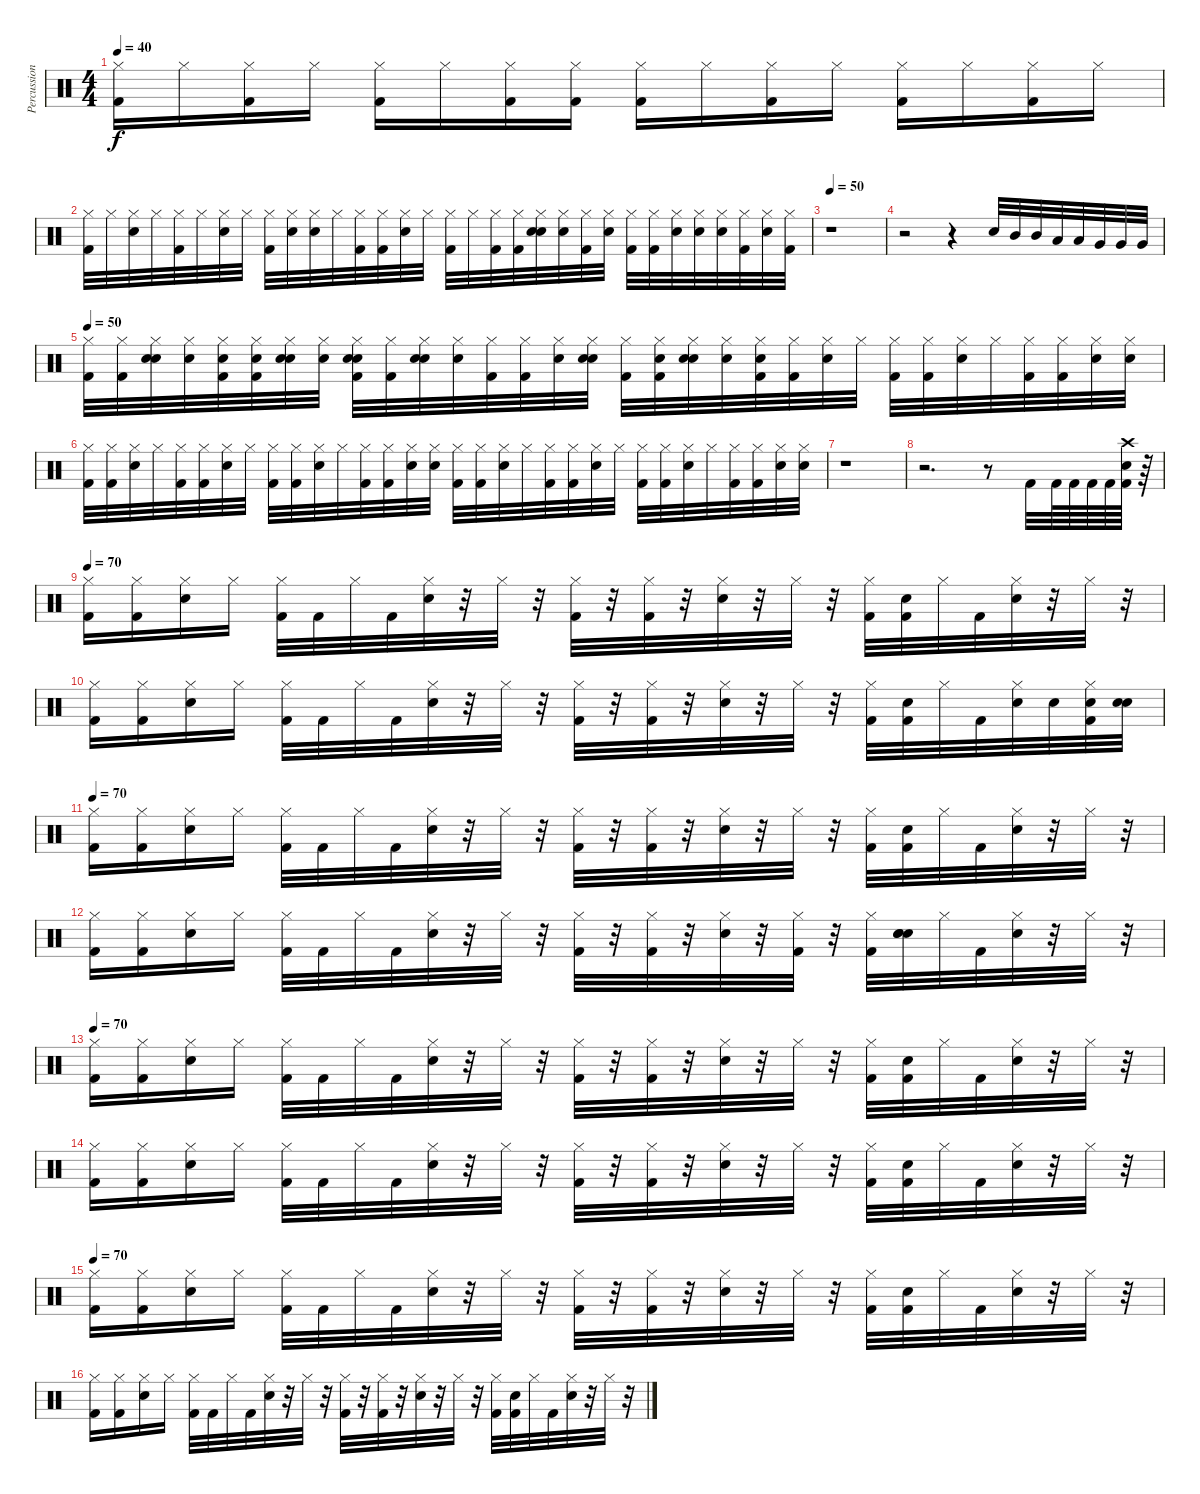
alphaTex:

\track ("Percussion" "Percussion") {instrument percussion}
\staff {score}
\articulation defaults
\ts (4 4)
\tempo 40
\clef neutral
\ks c
("Hi-Hat (closed)" "Kick (hit) 2").16{dy f} "Hi-Hat (closed)".16 ("Hi-Hat (closed)" "Kick (hit) 2").16 "Hi-Hat (closed)".16 ("Hi-Hat (closed)" "Kick (hit) 2").16 "Hi-Hat (closed)".16 ("Hi-Hat (closed)" "Kick (hit) 2").16 ("Hi-Hat (closed)" "Kick (hit) 2").16 ("Hi-Hat (closed)" "Kick (hit) 2").16 "Hi-Hat (closed)".16 ("Hi-Hat (closed)" "Kick (hit) 2").16 "Hi-Hat (closed)".16 ("Hi-Hat (closed)" "Kick (hit) 2").16 "Hi-Hat (closed)".16 ("Hi-Hat (closed)" "Kick (hit) 2").16 "Hi-Hat (closed)".16 |
("Hi-Hat (closed)" "Kick (hit) 2").32 "Hi-Hat (closed)".32 ("Hi-Hat (closed)" "Snare (hit)").32 "Hi-Hat (closed)".32 ("Hi-Hat (closed)" "Kick (hit) 2").32 "Hi-Hat (closed)".32 ("Hi-Hat (closed)" "Snare (hit)").32 "Hi-Hat (closed)".32 ("Hi-Hat (closed)" "Kick (hit) 2").32 ("Hi-Hat (closed)" "Snare (hit)").32 ("Hi-Hat (closed)" "Snare (hit)").32 "Hi-Hat (closed)".32 ("Hi-Hat (closed)" "Kick (hit) 2").32 ("Hi-Hat (closed)" "Kick (hit) 2").32 ("Hi-Hat (closed)" "Snare (hit)").32 "Hi-Hat (closed)".32 ("Hi-Hat (closed)" "Kick (hit) 2").32 "Hi-Hat (closed)".32 ("Hi-Hat (closed)" "Kick (hit) 2").32 ("Hi-Hat (closed)" "Kick (hit) 2").32 ("Hi-Hat (closed)" "Snare (hit)" "Snare (hit) 2").32 ("Hi-Hat (closed)" "Snare (hit) 2").32 ("Hi-Hat (closed)" "Kick (hit) 2").32 ("Hi-Hat (closed)" "Snare (hit) 2").32 ("Hi-Hat (closed)" "Kick (hit) 2").32 ("Hi-Hat (closed)" "Kick (hit) 2").32 ("Hi-Hat (closed)" "Snare (hit) 2").32 ("Hi-Hat (closed)" "Snare (hit)").32 ("Hi-Hat (closed)" "Snare (hit) 2").32 ("Hi-Hat (closed)" "Kick (hit) 2").32 ("Hi-Hat (closed)" "Snare (hit) 2").32 ("Hi-Hat (closed)" "Kick (hit) 2").32 |
\tempo 50
r.1 |
r.2 r.4 "Snare (hit) 2".32 "Mid Tom (hit)".32 "Mid Tom (hit)".32 "Low Tom (hit)".32 "Low Tom (hit)".32 "Very Low Tom (hit)".32 "Very Low Tom (hit)".32 "Very Low Tom (hit)".32 |
\tempo 50
("Hi-Hat (closed)" "Kick (hit) 2").32 ("Hi-Hat (closed)" "Kick (hit) 2").32 ("Hi-Hat (closed)" "Snare (hit) 2" "Snare (hit)").32 ("Hi-Hat (closed)" "Snare (hit)").32 ("Hi-Hat (closed)" "Snare (hit)" "Kick (hit) 2").32 ("Hi-Hat (closed)" "Snare (hit)" "Kick (hit) 2").32 ("Hi-Hat (closed)" "Snare (hit) 2" "Snare (hit)").32 ("Hi-Hat (closed)" "Snare (hit)").32 ("Hi-Hat (closed)" "Snare (hit)" "Snare (hit)" "Kick (hit) 2").32 ("Hi-Hat (closed)" "Kick (hit) 2").32 ("Hi-Hat (closed)" "Snare (hit) 2" "Snare (hit)").32 ("Hi-Hat (closed)" "Snare (hit)").32 ("Hi-Hat (closed)" "Kick (hit) 2").32 ("Hi-Hat (closed)" "Kick (hit) 2").32 ("Hi-Hat (closed)" "Snare (hit) 2").32 ("Hi-Hat (closed)" "Snare (hit) 2" "Snare (hit)").32 ("Hi-Hat (closed)" "Kick (hit) 2").32 ("Hi-Hat (closed)" "Snare (hit)" "Kick (hit) 2").32 ("Hi-Hat (closed)" "Snare (hit) 2" "Snare (hit)").32 ("Hi-Hat (closed)" "Snare (hit)").32 ("Hi-Hat (closed)" "Snare (hit)" "Kick (hit) 2").32 ("Hi-Hat (closed)" "Kick (hit) 2").32 ("Hi-Hat (closed)" "Snare (hit) 2").32 "Hi-Hat (closed)".32 ("Hi-Hat (closed)" "Kick (hit) 2").32 ("Hi-Hat (closed)" "Kick (hit) 2").32 ("Hi-Hat (closed)" "Snare (hit) 2").32 "Hi-Hat (closed)".32 ("Hi-Hat (closed)" "Kick (hit) 2").32 ("Hi-Hat (closed)" "Kick (hit) 2").32 ("Hi-Hat (closed)" "Snare (hit) 2").32 ("Hi-Hat (closed)" "Snare (hit) 2").32 |
("Hi-Hat (closed)" "Kick (hit) 2").32 ("Hi-Hat (closed)" "Kick (hit) 2").32 ("Hi-Hat (closed)" "Snare (hit) 2").32 "Hi-Hat (closed)".32 ("Hi-Hat (closed)" "Kick (hit) 2").32 ("Hi-Hat (closed)" "Kick (hit) 2").32 ("Hi-Hat (closed)" "Snare (hit) 2").32 "Hi-Hat (closed)".32 ("Hi-Hat (closed)" "Kick (hit) 2").32 ("Hi-Hat (closed)" "Kick (hit) 2").32 ("Hi-Hat (closed)" "Snare (hit) 2").32 "Hi-Hat (closed)".32 ("Hi-Hat (closed)" "Kick (hit) 2").32 ("Hi-Hat (closed)" "Kick (hit) 2").32 ("Hi-Hat (closed)" "Snare (hit) 2").32 ("Hi-Hat (closed)" "Snare (hit) 2").32 ("Hi-Hat (closed)" "Kick (hit) 2").32 ("Hi-Hat (closed)" "Kick (hit) 2").32 ("Hi-Hat (closed)" "Snare (hit) 2").32 "Hi-Hat (closed)".32 ("Hi-Hat (closed)" "Kick (hit) 2").32 ("Hi-Hat (closed)" "Kick (hit) 2").32 ("Hi-Hat (closed)" "Snare (hit) 2").32 "Hi-Hat (closed)".32 ("Hi-Hat (closed)" "Kick (hit) 2").32 ("Hi-Hat (closed)" "Kick (hit) 2").32 ("Hi-Hat (closed)" "Snare (hit) 2").32 "Hi-Hat (closed)".32 ("Hi-Hat (closed)" "Kick (hit) 2").32 ("Hi-Hat (closed)" "Kick (hit) 2").32 ("Hi-Hat (closed)" "Snare (hit) 2").32 ("Hi-Hat (closed)" "Snare (hit) 2").32 |
r.1 |
r.2{d} r.8 "Kick (hit) 2".32 "Kick (hit) 2".64 "Kick (hit) 2".64 "Kick (hit) 2".64 "Kick (hit) 2".64 ("Crash high (hit)" "Snare (hit) 2" "Kick (hit) 2").64 r.64 |
\tempo 70
("Hi-Hat (closed)" "Kick (hit) 2").16 ("Hi-Hat (closed)" "Kick (hit) 2").16 ("Hi-Hat (closed)" "Snare (hit) 2").16 "Hi-Hat (closed)".16 ("Hi-Hat (closed)" "Kick (hit) 2").32 "Kick (hit) 2".32 "Hi-Hat (closed)".32 "Kick (hit) 2".32 ("Hi-Hat (closed)" "Snare (hit) 2").32 r.32 "Hi-Hat (closed)".32 r.32 ("Hi-Hat (closed)" "Kick (hit) 2").32 r.32 ("Hi-Hat (closed)" "Kick (hit) 2").32 r.32 ("Hi-Hat (closed)" "Snare (hit) 2").32 r.32 "Hi-Hat (closed)".32 r.32 ("Hi-Hat (closed)" "Kick (hit) 2").32 ("Snare (hit)" "Kick (hit) 2").32 "Hi-Hat (closed)".32 "Kick (hit) 2".32 ("Hi-Hat (closed)" "Snare (hit) 2").32 r.32 "Hi-Hat (closed)".32 r.32 |
("Hi-Hat (closed)" "Kick (hit) 2").16 ("Hi-Hat (closed)" "Kick (hit) 2").16 ("Hi-Hat (closed)" "Snare (hit) 2").16 "Hi-Hat (closed)".16 ("Hi-Hat (closed)" "Kick (hit) 2").32 "Kick (hit) 2".32 "Hi-Hat (closed)".32 "Kick (hit) 2".32 ("Hi-Hat (closed)" "Snare (hit) 2").32 r.32 "Hi-Hat (closed)".32 r.32 ("Hi-Hat (closed)" "Kick (hit) 2").32 r.32 ("Hi-Hat (closed)" "Kick (hit) 2").32 r.32 ("Hi-Hat (closed)" "Snare (hit) 2").32 r.32 "Hi-Hat (closed)".32 r.32 ("Hi-Hat (closed)" "Kick (hit) 2").32 ("Snare (hit)" "Kick (hit) 2").32 "Hi-Hat (closed)".32 "Kick (hit) 2".32 ("Hi-Hat (closed)" "Snare (hit) 2").32 "Snare (hit)".32 ("Hi-Hat (closed)" "Snare (hit)" "Kick (hit) 2").32 ("Snare (hit) 2" "Snare (hit)").32 |
\tempo 70
("Hi-Hat (closed)" "Kick (hit) 2").16 ("Hi-Hat (closed)" "Kick (hit) 2").16 ("Hi-Hat (closed)" "Snare (hit) 2").16 "Hi-Hat (closed)".16 ("Hi-Hat (closed)" "Kick (hit) 2").32 "Kick (hit) 2".32 "Hi-Hat (closed)".32 "Kick (hit) 2".32 ("Hi-Hat (closed)" "Snare (hit) 2").32 r.32 "Hi-Hat (closed)".32 r.32 ("Hi-Hat (closed)" "Kick (hit) 2").32 r.32 ("Hi-Hat (closed)" "Kick (hit) 2").32 r.32 ("Hi-Hat (closed)" "Snare (hit) 2").32 r.32 "Hi-Hat (closed)".32 r.32 ("Hi-Hat (closed)" "Kick (hit) 2").32 ("Snare (hit)" "Kick (hit) 2").32 "Hi-Hat (closed)".32 "Kick (hit) 2".32 ("Hi-Hat (closed)" "Snare (hit) 2").32 r.32 "Hi-Hat (closed)".32 r.32 |
("Hi-Hat (closed)" "Kick (hit) 2").16 ("Hi-Hat (closed)" "Kick (hit) 2").16 ("Hi-Hat (closed)" "Snare (hit) 2").16 "Hi-Hat (closed)".16 ("Hi-Hat (closed)" "Kick (hit) 2").32 "Kick (hit) 2".32 "Hi-Hat (closed)".32 "Kick (hit) 2".32 ("Hi-Hat (closed)" "Snare (hit) 2").32 r.32 "Hi-Hat (closed)".32 r.32 ("Hi-Hat (closed)" "Kick (hit) 2").32 r.32 ("Hi-Hat (closed)" "Kick (hit) 2").32 r.32 ("Hi-Hat (closed)" "Snare (hit) 2").32 r.32 ("Hi-Hat (closed)" "Kick (hit) 2").32 r.32 ("Hi-Hat (closed)" "Kick (hit) 2").32 ("Snare (hit)" "Snare (hit) 2" "Snare (hit)").32 "Hi-Hat (closed)".32 "Kick (hit) 2".32 ("Hi-Hat (closed)" "Snare (hit) 2").32 r.32 "Hi-Hat (closed)".32 r.32 |
\tempo 70
("Hi-Hat (closed)" "Kick (hit) 2").16 ("Hi-Hat (closed)" "Kick (hit) 2").16 ("Hi-Hat (closed)" "Snare (hit) 2").16 "Hi-Hat (closed)".16 ("Hi-Hat (closed)" "Kick (hit) 2").32 "Kick (hit) 2".32 "Hi-Hat (closed)".32 "Kick (hit) 2".32 ("Hi-Hat (closed)" "Snare (hit) 2").32 r.32 "Hi-Hat (closed)".32 r.32 ("Hi-Hat (closed)" "Kick (hit) 2").32 r.32 ("Hi-Hat (closed)" "Kick (hit) 2").32 r.32 ("Hi-Hat (closed)" "Snare (hit) 2").32 r.32 "Hi-Hat (closed)".32 r.32 ("Hi-Hat (closed)" "Kick (hit) 2").32 ("Snare (hit)" "Kick (hit) 2").32 "Hi-Hat (closed)".32 "Kick (hit) 2".32 ("Hi-Hat (closed)" "Snare (hit) 2").32 r.32 "Hi-Hat (closed)".32 r.32 |
("Hi-Hat (closed)" "Kick (hit) 2").16 ("Hi-Hat (closed)" "Kick (hit) 2").16 ("Hi-Hat (closed)" "Snare (hit) 2").16 "Hi-Hat (closed)".16 ("Hi-Hat (closed)" "Kick (hit) 2").32 "Kick (hit) 2".32 "Hi-Hat (closed)".32 "Kick (hit) 2".32 ("Hi-Hat (closed)" "Snare (hit) 2").32 r.32 "Hi-Hat (closed)".32 r.32 ("Hi-Hat (closed)" "Kick (hit) 2").32 r.32 ("Hi-Hat (closed)" "Kick (hit) 2").32 r.32 ("Hi-Hat (closed)" "Snare (hit) 2").32 r.32 "Hi-Hat (closed)".32 r.32 ("Hi-Hat (closed)" "Kick (hit) 2").32 ("Snare (hit)" "Kick (hit) 2").32 "Hi-Hat (closed)".32 "Kick (hit) 2".32 ("Hi-Hat (closed)" "Snare (hit) 2").32 r.32 "Hi-Hat (closed)".32 r.32 |
\tempo 70
("Hi-Hat (closed)" "Kick (hit) 2").16 ("Hi-Hat (closed)" "Kick (hit) 2").16 ("Hi-Hat (closed)" "Snare (hit) 2").16 "Hi-Hat (closed)".16 ("Hi-Hat (closed)" "Kick (hit) 2").32 "Kick (hit) 2".32 "Hi-Hat (closed)".32 "Kick (hit) 2".32 ("Hi-Hat (closed)" "Snare (hit) 2").32 r.32 "Hi-Hat (closed)".32 r.32 ("Hi-Hat (closed)" "Kick (hit) 2").32 r.32 ("Hi-Hat (closed)" "Kick (hit) 2").32 r.32 ("Hi-Hat (closed)" "Snare (hit) 2").32 r.32 "Hi-Hat (closed)".32 r.32 ("Hi-Hat (closed)" "Kick (hit) 2").32 ("Snare (hit)" "Kick (hit) 2").32 "Hi-Hat (closed)".32 "Kick (hit) 2".32 ("Hi-Hat (closed)" "Snare (hit) 2").32 r.32 "Hi-Hat (closed)".32 r.32 |
("Hi-Hat (closed)" "Kick (hit) 2").16 ("Hi-Hat (closed)" "Kick (hit) 2").16 ("Hi-Hat (closed)" "Snare (hit) 2").16 "Hi-Hat (closed)".16 ("Hi-Hat (closed)" "Kick (hit) 2").32 "Kick (hit) 2".32 "Hi-Hat (closed)".32 "Kick (hit) 2".32 ("Hi-Hat (closed)" "Snare (hit) 2").32 r.32 "Hi-Hat (closed)".32 r.32 ("Hi-Hat (closed)" "Kick (hit) 2").32 r.32 ("Hi-Hat (closed)" "Kick (hit) 2").32 r.32 ("Hi-Hat (closed)" "Snare (hit) 2").32 r.32 "Hi-Hat (closed)".32 r.32 ("Hi-Hat (closed)" "Kick (hit) 2").32 ("Snare (hit)" "Kick (hit) 2").32 "Hi-Hat (closed)".32 "Kick (hit) 2".32 ("Hi-Hat (closed)" "Snare (hit) 2").32 r.32 "Hi-Hat (closed)".32 r.32
